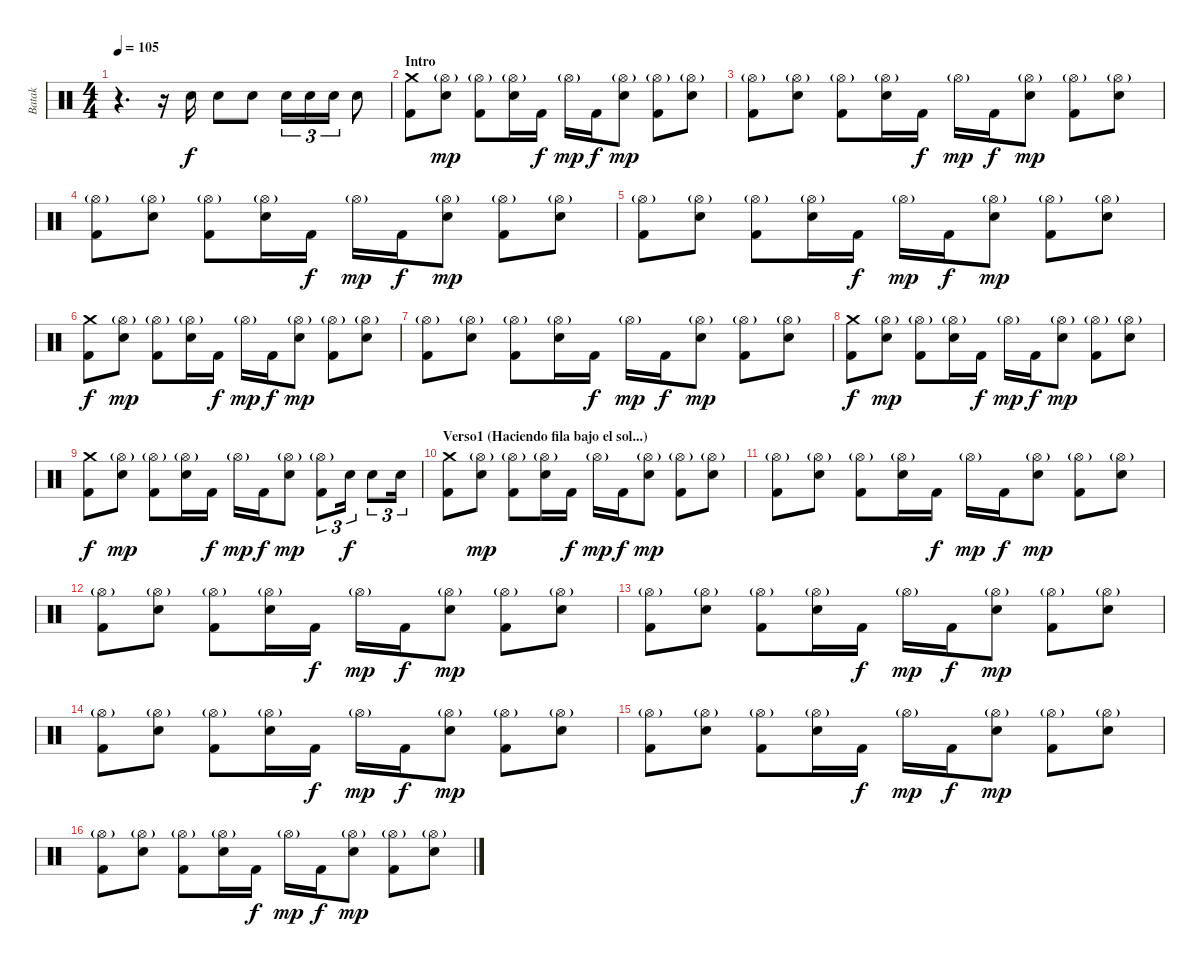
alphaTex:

\track ("Batak" "Batak") {instrument percussion}
\staff {score}
\articulation defaults
\ts (4 4)
\tempo 105
\clef neutral
\ks c
r.4{d dy f} r.16 "Electric Snare (hit)".16 "Electric Snare (hit)".8 "Electric Snare (hit)".8 "Electric Snare (hit)".16{tu (3 2)} "Electric Snare (hit)".16{tu (3 2)} "Electric Snare (hit)".16{tu (3 2)} "Electric Snare (hit)".8 |
\section ("" "Intro")
("Crash medium (hit)" "Kick (hit) 2").8 ("Hi-Hat (open)"{g} "Electric Snare (hit)").8{dy mp} ("Hi-Hat (open)"{g} "Kick (hit) 2").8 ("Hi-Hat (open)"{g} "Electric Snare (hit)").16 "Kick (hit) 2".16{dy f} "Hi-Hat (open)"{g}.16{dy mp} "Kick (hit) 2".16{dy f} ("Hi-Hat (open)"{g} "Electric Snare (hit)").8{dy mp} ("Hi-Hat (open)"{g} "Kick (hit) 2").8 ("Hi-Hat (open)"{g} "Electric Snare (hit)").8 |
("Hi-Hat (open)"{g} "Kick (hit) 2").8 ("Hi-Hat (open)"{g} "Electric Snare (hit)").8 ("Hi-Hat (open)"{g} "Kick (hit) 2").8 ("Hi-Hat (open)"{g} "Electric Snare (hit)").16 "Kick (hit) 2".16{dy f} "Hi-Hat (open)"{g}.16{dy mp} "Kick (hit) 2".16{dy f} ("Hi-Hat (open)"{g} "Electric Snare (hit)").8{dy mp} ("Hi-Hat (open)"{g} "Kick (hit) 2").8 ("Hi-Hat (open)"{g} "Electric Snare (hit)").8 |
("Hi-Hat (open)"{g} "Kick (hit) 2").8 ("Hi-Hat (open)"{g} "Electric Snare (hit)").8 ("Hi-Hat (open)"{g} "Kick (hit) 2").8 ("Hi-Hat (open)"{g} "Electric Snare (hit)").16 "Kick (hit) 2".16{dy f} "Hi-Hat (open)"{g}.16{dy mp} "Kick (hit) 2".16{dy f} ("Hi-Hat (open)"{g} "Electric Snare (hit)").8{dy mp} ("Hi-Hat (open)"{g} "Kick (hit) 2").8 ("Hi-Hat (open)"{g} "Electric Snare (hit)").8 |
("Hi-Hat (open)"{g} "Kick (hit) 2").8 ("Hi-Hat (open)"{g} "Electric Snare (hit)").8 ("Hi-Hat (open)"{g} "Kick (hit) 2").8 ("Hi-Hat (open)"{g} "Electric Snare (hit)").16 "Kick (hit) 2".16{dy f} "Hi-Hat (open)"{g}.16{dy mp} "Kick (hit) 2".16{dy f} ("Hi-Hat (open)"{g} "Electric Snare (hit)").8{dy mp} ("Hi-Hat (open)"{g} "Kick (hit) 2").8 ("Hi-Hat (open)"{g} "Electric Snare (hit)").8 |
("Crash medium (hit)" "Kick (hit) 2").8{dy f} ("Hi-Hat (open)"{g} "Electric Snare (hit)").8{dy mp} ("Hi-Hat (open)"{g} "Kick (hit) 2").8 ("Hi-Hat (open)"{g} "Electric Snare (hit)").16 "Kick (hit) 2".16{dy f} "Hi-Hat (open)"{g}.16{dy mp} "Kick (hit) 2".16{dy f} ("Hi-Hat (open)"{g} "Electric Snare (hit)").8{dy mp} ("Hi-Hat (open)"{g} "Kick (hit) 2").8 ("Hi-Hat (open)"{g} "Electric Snare (hit)").8 |
("Hi-Hat (open)"{g} "Kick (hit) 2").8 ("Hi-Hat (open)"{g} "Electric Snare (hit)").8 ("Hi-Hat (open)"{g} "Kick (hit) 2").8 ("Hi-Hat (open)"{g} "Electric Snare (hit)").16 "Kick (hit) 2".16{dy f} "Hi-Hat (open)"{g}.16{dy mp} "Kick (hit) 2".16{dy f} ("Hi-Hat (open)"{g} "Electric Snare (hit)").8{dy mp} ("Hi-Hat (open)"{g} "Kick (hit) 2").8 ("Hi-Hat (open)"{g} "Electric Snare (hit)").8 |
("Crash medium (hit)" "Kick (hit) 2").8{dy f} ("Hi-Hat (open)"{g} "Electric Snare (hit)").8{dy mp} ("Hi-Hat (open)"{g} "Kick (hit) 2").8 ("Hi-Hat (open)"{g} "Electric Snare (hit)").16 "Kick (hit) 2".16{dy f} "Hi-Hat (open)"{g}.16{dy mp} "Kick (hit) 2".16{dy f} ("Hi-Hat (open)"{g} "Electric Snare (hit)").8{dy mp} ("Hi-Hat (open)"{g} "Kick (hit) 2").8 ("Hi-Hat (open)"{g} "Electric Snare (hit)").8 |
("Crash medium (hit)" "Kick (hit) 2").8{dy f} ("Hi-Hat (open)"{g} "Electric Snare (hit)").8{dy mp} ("Hi-Hat (open)"{g} "Kick (hit) 2").8 ("Hi-Hat (open)"{g} "Electric Snare (hit)").16 "Kick (hit) 2".16{dy f} "Hi-Hat (open)"{g}.16{dy mp} "Kick (hit) 2".16{dy f} ("Hi-Hat (open)"{g} "Electric Snare (hit)").8{dy mp} ("Hi-Hat (open)"{g} "Kick (hit) 2").8{tu (3 2)} "Electric Snare (hit)".16{tu (3 2) dy f} "Electric Snare (hit)".8{tu (3 2)} "Electric Snare (hit)".16{tu (3 2)} |
\section ("" "Verso1 (Haciendo fila bajo el sol...)")
("Crash medium (hit)" "Kick (hit) 2").8 ("Hi-Hat (open)"{g} "Electric Snare (hit)").8{dy mp} ("Hi-Hat (open)"{g} "Kick (hit) 2").8 ("Hi-Hat (open)"{g} "Electric Snare (hit)").16 "Kick (hit) 2".16{dy f} "Hi-Hat (open)"{g}.16{dy mp} "Kick (hit) 2".16{dy f} ("Hi-Hat (open)"{g} "Electric Snare (hit)").8{dy mp} ("Hi-Hat (open)"{g} "Kick (hit) 2").8 ("Hi-Hat (open)"{g} "Electric Snare (hit)").8 |
("Hi-Hat (open)"{g} "Kick (hit) 2").8 ("Hi-Hat (open)"{g} "Electric Snare (hit)").8 ("Hi-Hat (open)"{g} "Kick (hit) 2").8 ("Hi-Hat (open)"{g} "Electric Snare (hit)").16 "Kick (hit) 2".16{dy f} "Hi-Hat (open)"{g}.16{dy mp} "Kick (hit) 2".16{dy f} ("Hi-Hat (open)"{g} "Electric Snare (hit)").8{dy mp} ("Hi-Hat (open)"{g} "Kick (hit) 2").8 ("Hi-Hat (open)"{g} "Electric Snare (hit)").8 |
("Hi-Hat (open)"{g} "Kick (hit) 2").8 ("Hi-Hat (open)"{g} "Electric Snare (hit)").8 ("Hi-Hat (open)"{g} "Kick (hit) 2").8 ("Hi-Hat (open)"{g} "Electric Snare (hit)").16 "Kick (hit) 2".16{dy f} "Hi-Hat (open)"{g}.16{dy mp} "Kick (hit) 2".16{dy f} ("Hi-Hat (open)"{g} "Electric Snare (hit)").8{dy mp} ("Hi-Hat (open)"{g} "Kick (hit) 2").8 ("Hi-Hat (open)"{g} "Electric Snare (hit)").8 |
("Hi-Hat (open)"{g} "Kick (hit) 2").8 ("Hi-Hat (open)"{g} "Electric Snare (hit)").8 ("Hi-Hat (open)"{g} "Kick (hit) 2").8 ("Hi-Hat (open)"{g} "Electric Snare (hit)").16 "Kick (hit) 2".16{dy f} "Hi-Hat (open)"{g}.16{dy mp} "Kick (hit) 2".16{dy f} ("Hi-Hat (open)"{g} "Electric Snare (hit)").8{dy mp} ("Hi-Hat (open)"{g} "Kick (hit) 2").8 ("Hi-Hat (open)"{g} "Electric Snare (hit)").8 |
("Hi-Hat (open)"{g} "Kick (hit) 2").8 ("Hi-Hat (open)"{g} "Electric Snare (hit)").8 ("Hi-Hat (open)"{g} "Kick (hit) 2").8 ("Hi-Hat (open)"{g} "Electric Snare (hit)").16 "Kick (hit) 2".16{dy f} "Hi-Hat (open)"{g}.16{dy mp} "Kick (hit) 2".16{dy f} ("Hi-Hat (open)"{g} "Electric Snare (hit)").8{dy mp} ("Hi-Hat (open)"{g} "Kick (hit) 2").8 ("Hi-Hat (open)"{g} "Electric Snare (hit)").8 |
("Hi-Hat (open)"{g} "Kick (hit) 2").8 ("Hi-Hat (open)"{g} "Electric Snare (hit)").8 ("Hi-Hat (open)"{g} "Kick (hit) 2").8 ("Hi-Hat (open)"{g} "Electric Snare (hit)").16 "Kick (hit) 2".16{dy f} "Hi-Hat (open)"{g}.16{dy mp} "Kick (hit) 2".16{dy f} ("Hi-Hat (open)"{g} "Electric Snare (hit)").8{dy mp} ("Hi-Hat (open)"{g} "Kick (hit) 2").8 ("Hi-Hat (open)"{g} "Electric Snare (hit)").8 |
("Hi-Hat (open)"{g} "Kick (hit) 2").8 ("Hi-Hat (open)"{g} "Electric Snare (hit)").8 ("Hi-Hat (open)"{g} "Kick (hit) 2").8 ("Hi-Hat (open)"{g} "Electric Snare (hit)").16 "Kick (hit) 2".16{dy f} "Hi-Hat (open)"{g}.16{dy mp} "Kick (hit) 2".16{dy f} ("Hi-Hat (open)"{g} "Electric Snare (hit)").8{dy mp} ("Hi-Hat (open)"{g} "Kick (hit) 2").8 ("Hi-Hat (open)"{g} "Electric Snare (hit)").8
